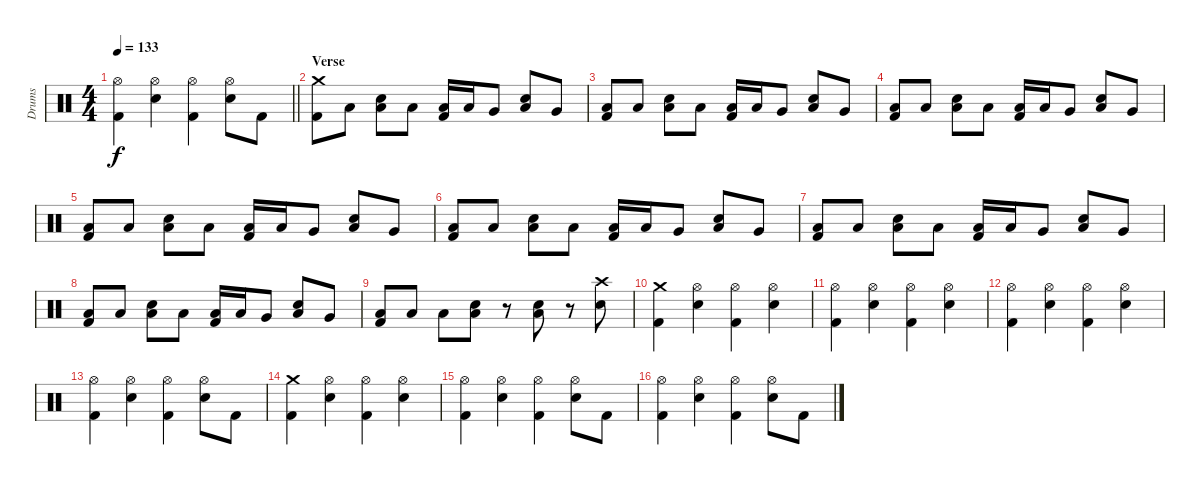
\track ("Drums" "Drums") {instrument percussion}
\staff {score}
\articulation defaults
\ts (4 4)
\tempo 133
\clef neutral
\barLineRight lightlight
\ks c
("Hi-Hat (open)" "Kick (hit) 2").4{dy f} ("Hi-Hat (open)" "Snare (hit) 2").4 ("Hi-Hat (open)" "Kick (hit) 2").4 ("Hi-Hat (open)" "Snare (hit) 2").8 "Kick (hit) 2".8 |
\section ("" "Verse")
("Crash medium (hit)" "Kick (hit) 2").8 "Low Floor Tom (hit)".8 ("Low Floor Tom (hit)" "Snare (hit) 2").8 "Low Floor Tom (hit)".8 ("Low Floor Tom (hit)" "Kick (hit) 2").16 "Low Tom (hit)".16 "Very Low Tom (hit)".8 ("Low Floor Tom (hit)" "Snare (hit) 2").8 "Very Low Tom (hit)".8 |
("Low Floor Tom (hit)" "Kick (hit) 2").8 "Low Floor Tom (hit)".8 ("Low Floor Tom (hit)" "Snare (hit) 2").8 "Low Floor Tom (hit)".8 ("Low Floor Tom (hit)" "Kick (hit) 2").16 "Low Tom (hit)".16 "Very Low Tom (hit)".8 ("Low Floor Tom (hit)" "Snare (hit) 2").8 "Very Low Tom (hit)".8 |
("Low Floor Tom (hit)" "Kick (hit) 2").8 "Low Floor Tom (hit)".8 ("Low Floor Tom (hit)" "Snare (hit) 2").8 "Low Floor Tom (hit)".8 ("Low Floor Tom (hit)" "Kick (hit) 2").16 "Low Tom (hit)".16 "Very Low Tom (hit)".8 ("Low Floor Tom (hit)" "Snare (hit) 2").8 "Very Low Tom (hit)".8 |
("Low Floor Tom (hit)" "Kick (hit) 2").8 "Low Floor Tom (hit)".8 ("Low Floor Tom (hit)" "Snare (hit) 2").8 "Low Floor Tom (hit)".8 ("Low Floor Tom (hit)" "Kick (hit) 2").16 "Low Tom (hit)".16 "Very Low Tom (hit)".8 ("Low Floor Tom (hit)" "Snare (hit) 2").8 "Very Low Tom (hit)".8 |
("Low Floor Tom (hit)" "Kick (hit) 2").8 "Low Floor Tom (hit)".8 ("Low Floor Tom (hit)" "Snare (hit) 2").8 "Low Floor Tom (hit)".8 ("Low Floor Tom (hit)" "Kick (hit) 2").16 "Low Tom (hit)".16 "Very Low Tom (hit)".8 ("Low Floor Tom (hit)" "Snare (hit) 2").8 "Very Low Tom (hit)".8 |
("Low Floor Tom (hit)" "Kick (hit) 2").8 "Low Floor Tom (hit)".8 ("Low Floor Tom (hit)" "Snare (hit) 2").8 "Low Floor Tom (hit)".8 ("Low Floor Tom (hit)" "Kick (hit) 2").16 "Low Tom (hit)".16 "Very Low Tom (hit)".8 ("Low Floor Tom (hit)" "Snare (hit) 2").8 "Very Low Tom (hit)".8 |
("Low Floor Tom (hit)" "Kick (hit) 2").8 "Low Floor Tom (hit)".8 ("Low Floor Tom (hit)" "Snare (hit) 2").8 "Low Floor Tom (hit)".8 ("Low Floor Tom (hit)" "Kick (hit) 2").16 "Low Tom (hit)".16 "Very Low Tom (hit)".8 ("Low Floor Tom (hit)" "Snare (hit) 2").8 "Very Low Tom (hit)".8 |
("Low Floor Tom (hit)" "Kick (hit) 2").8 "Low Floor Tom (hit)".8 "Low Floor Tom (hit)".8 ("Low Floor Tom (hit)" "Snare (hit) 2").8 r.8 ("Low Floor Tom (hit)" "Snare (hit) 2").8 r.8 ("Crash high (hit)" "Snare (hit) 2").8 |
("Crash medium (hit)" "Kick (hit) 2").4 ("Hi-Hat (open)" "Snare (hit) 2").4 ("Hi-Hat (open)" "Kick (hit) 2").4 ("Hi-Hat (open)" "Snare (hit) 2").4 |
("Hi-Hat (open)" "Kick (hit) 2").4 ("Hi-Hat (open)" "Snare (hit) 2").4 ("Hi-Hat (open)" "Kick (hit) 2").4 ("Hi-Hat (open)" "Snare (hit) 2").4 |
("Hi-Hat (open)" "Kick (hit) 2").4 ("Hi-Hat (open)" "Snare (hit) 2").4 ("Hi-Hat (open)" "Kick (hit) 2").4 ("Hi-Hat (open)" "Snare (hit) 2").4 |
("Hi-Hat (open)" "Kick (hit) 2").4 ("Hi-Hat (open)" "Snare (hit) 2").4 ("Hi-Hat (open)" "Kick (hit) 2").4 ("Hi-Hat (open)" "Snare (hit) 2").8 "Kick (hit) 2".8 |
("Crash medium (hit)" "Kick (hit) 2").4 ("Hi-Hat (open)" "Snare (hit) 2").4 ("Hi-Hat (open)" "Kick (hit) 2").4 ("Hi-Hat (open)" "Snare (hit) 2").4 |
("Hi-Hat (open)" "Kick (hit) 2").4 ("Hi-Hat (open)" "Snare (hit) 2").4 ("Hi-Hat (open)" "Kick (hit) 2").4 ("Hi-Hat (open)" "Snare (hit) 2").8 "Kick (hit) 2".8 |
("Hi-Hat (open)" "Kick (hit) 2").4 ("Hi-Hat (open)" "Snare (hit) 2").4 ("Hi-Hat (open)" "Kick (hit) 2").4 ("Hi-Hat (open)" "Snare (hit) 2").8 "Kick (hit) 2".8
